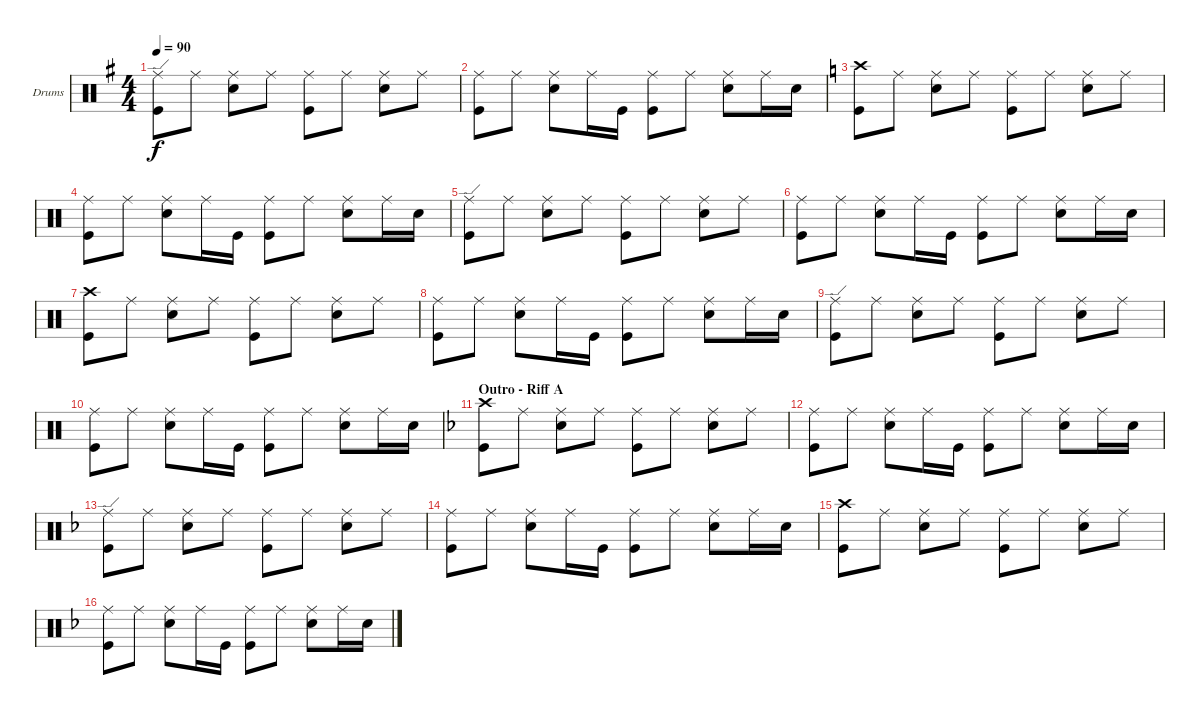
\bracketExtendMode groupsimilarinstruments
\firstSystemTrackNameOrientation horizontal
\otherSystemsTrackNameOrientation horizontal
\track ("Drumkit" "Drums") {instrument percussion}
\staff {score}
\articulation defaults
\ts (4 4)
\tempo 90
\clef neutral
\ks g
("Ride (edge)" "Kick (hit)").8{dy f} "Ride (middle)".8 ("Ride (middle)" "Snare (hit) 2").8 "Ride (middle)".8 ("Ride (middle)" "Kick (hit)").8 "Ride (middle)".8 ("Ride (middle)" "Snare (hit) 2").8 "Ride (middle)".8 |
("Ride (middle)" "Kick (hit)").8 "Ride (middle)".8 ("Ride (middle)" "Snare (hit) 2").8 "Ride (middle)".16 "Kick (hit)".16 ("Ride (middle)" "Kick (hit)").8 "Ride (middle)".8 ("Ride (middle)" "Snare (hit) 2").8 "Ride (middle)".16 "Snare (hit) 2".16 |
\ks c
("Crash high (hit)" "Kick (hit)").8 "Ride (middle)".8 ("Ride (middle)" "Snare (hit) 2").8 "Ride (middle)".8 ("Ride (middle)" "Kick (hit)").8 "Ride (middle)".8 ("Ride (middle)" "Snare (hit) 2").8 "Ride (middle)".8 |
("Ride (middle)" "Kick (hit)").8 "Ride (middle)".8 ("Ride (middle)" "Snare (hit) 2").8 "Ride (middle)".16 "Kick (hit)".16 ("Ride (middle)" "Kick (hit)").8 "Ride (middle)".8 ("Ride (middle)" "Snare (hit) 2").8 "Ride (middle)".16 "Snare (hit) 2".16 |
("Ride (edge)" "Kick (hit)").8 "Ride (middle)".8 ("Ride (middle)" "Snare (hit) 2").8 "Ride (middle)".8 ("Ride (middle)" "Kick (hit)").8 "Ride (middle)".8 ("Ride (middle)" "Snare (hit) 2").8 "Ride (middle)".8 |
("Ride (middle)" "Kick (hit)").8 "Ride (middle)".8 ("Ride (middle)" "Snare (hit) 2").8 "Ride (middle)".16 "Kick (hit)".16 ("Ride (middle)" "Kick (hit)").8 "Ride (middle)".8 ("Ride (middle)" "Snare (hit) 2").8 "Ride (middle)".16 "Snare (hit) 2".16 |
("Crash high (hit)" "Kick (hit)").8 "Ride (middle)".8 ("Ride (middle)" "Snare (hit) 2").8 "Ride (middle)".8 ("Ride (middle)" "Kick (hit)").8 "Ride (middle)".8 ("Ride (middle)" "Snare (hit) 2").8 "Ride (middle)".8 |
("Ride (middle)" "Kick (hit)").8 "Ride (middle)".8 ("Ride (middle)" "Snare (hit) 2").8 "Ride (middle)".16 "Kick (hit)".16 ("Ride (middle)" "Kick (hit)").8 "Ride (middle)".8 ("Ride (middle)" "Snare (hit) 2").8 "Ride (middle)".16 "Snare (hit) 2".16 |
("Ride (edge)" "Kick (hit)").8 "Ride (middle)".8 ("Ride (middle)" "Snare (hit) 2").8 "Ride (middle)".8 ("Ride (middle)" "Kick (hit)").8 "Ride (middle)".8 ("Ride (middle)" "Snare (hit) 2").8 "Ride (middle)".8 |
("Ride (middle)" "Kick (hit)").8 "Ride (middle)".8 ("Ride (middle)" "Snare (hit) 2").8 "Ride (middle)".16 "Kick (hit)".16 ("Ride (middle)" "Kick (hit)").8 "Ride (middle)".8 ("Ride (middle)" "Snare (hit) 2").8 "Ride (middle)".16 "Snare (hit) 2".16 |
\section ("" "Outro - Riff A")
\ks f
("Crash high (hit)" "Kick (hit)").8 "Ride (middle)".8 ("Ride (middle)" "Snare (hit) 2").8 "Ride (middle)".8 ("Ride (middle)" "Kick (hit)").8 "Ride (middle)".8 ("Ride (middle)" "Snare (hit) 2").8 "Ride (middle)".8 |
("Ride (middle)" "Kick (hit)").8 "Ride (middle)".8 ("Ride (middle)" "Snare (hit) 2").8 "Ride (middle)".16 "Kick (hit)".16 ("Ride (middle)" "Kick (hit)").8 "Ride (middle)".8 ("Ride (middle)" "Snare (hit) 2").8 "Ride (middle)".16 "Snare (hit) 2".16 |
("Ride (edge)" "Kick (hit)").8 "Ride (middle)".8 ("Ride (middle)" "Snare (hit) 2").8 "Ride (middle)".8 ("Ride (middle)" "Kick (hit)").8 "Ride (middle)".8 ("Ride (middle)" "Snare (hit) 2").8 "Ride (middle)".8 |
("Ride (middle)" "Kick (hit)").8 "Ride (middle)".8 ("Ride (middle)" "Snare (hit) 2").8 "Ride (middle)".16 "Kick (hit)".16 ("Ride (middle)" "Kick (hit)").8 "Ride (middle)".8 ("Ride (middle)" "Snare (hit) 2").8 "Ride (middle)".16 "Snare (hit) 2".16 |
("Crash high (hit)" "Kick (hit)").8 "Ride (middle)".8 ("Ride (middle)" "Snare (hit) 2").8 "Ride (middle)".8 ("Ride (middle)" "Kick (hit)").8 "Ride (middle)".8 ("Ride (middle)" "Snare (hit) 2").8 "Ride (middle)".8 |
("Ride (middle)" "Kick (hit)").8 "Ride (middle)".8 ("Ride (middle)" "Snare (hit) 2").8 "Ride (middle)".16 "Kick (hit)".16 ("Ride (middle)" "Kick (hit)").8 "Ride (middle)".8 ("Ride (middle)" "Snare (hit) 2").8 "Ride (middle)".16 "Snare (hit) 2".16
